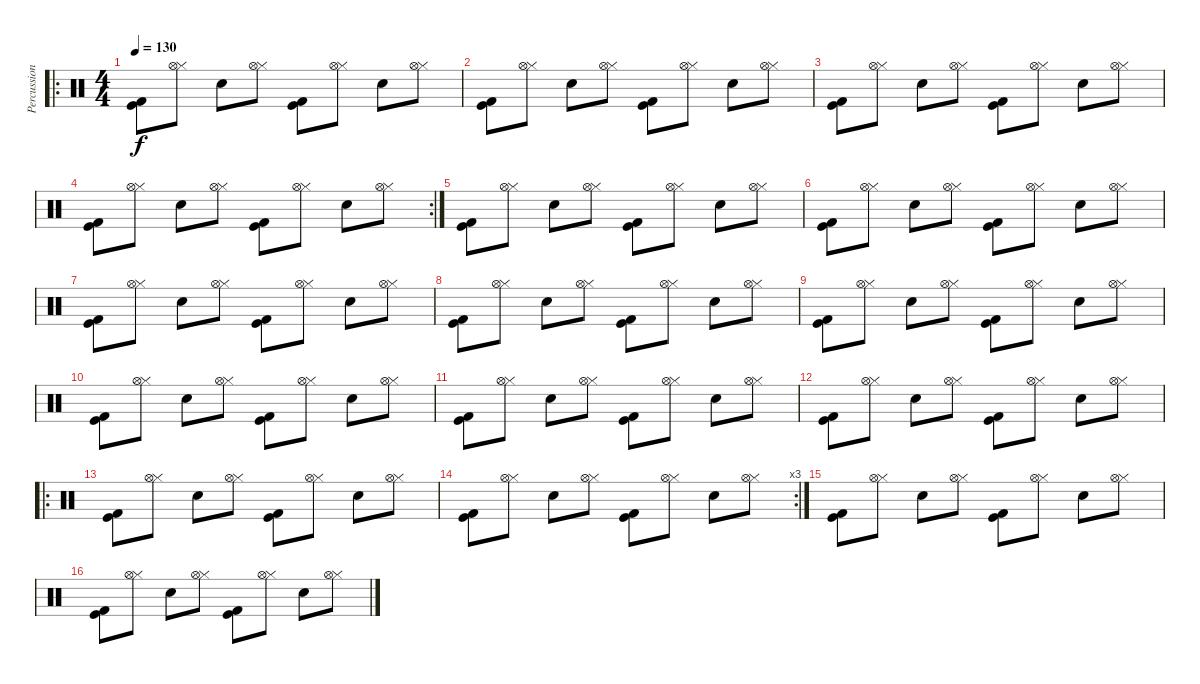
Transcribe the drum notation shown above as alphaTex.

\track ("Percussion" "Percussion") {instrument percussion}
\staff {score}
\articulation defaults
\ro
\ts (4 4)
\tempo 130
\clef neutral
\ks c
("Kick (hit)" "Kick (hit) 2").8{dy f} ("Hi-Hat (closed)" "Hi-Hat (open)").8 "Electric Snare (hit)".8 ("Hi-Hat (closed)" "Hi-Hat (open)").8 ("Kick (hit)" "Kick (hit) 2").8 ("Hi-Hat (closed)" "Hi-Hat (open)").8 "Electric Snare (hit)".8 ("Hi-Hat (closed)" "Hi-Hat (open)").8 |
("Kick (hit)" "Kick (hit) 2").8 ("Hi-Hat (closed)" "Hi-Hat (open)").8 "Electric Snare (hit)".8 ("Hi-Hat (closed)" "Hi-Hat (open)").8 ("Kick (hit)" "Kick (hit) 2").8 ("Hi-Hat (closed)" "Hi-Hat (open)").8 "Electric Snare (hit)".8 ("Hi-Hat (closed)" "Hi-Hat (open)").8 |
("Kick (hit)" "Kick (hit) 2").8 ("Hi-Hat (closed)" "Hi-Hat (open)").8 "Electric Snare (hit)".8 ("Hi-Hat (closed)" "Hi-Hat (open)").8 ("Kick (hit)" "Kick (hit) 2").8 ("Hi-Hat (closed)" "Hi-Hat (open)").8 "Electric Snare (hit)".8 ("Hi-Hat (closed)" "Hi-Hat (open)").8 |
\rc 2
("Kick (hit)" "Kick (hit) 2").8 ("Hi-Hat (closed)" "Hi-Hat (open)").8 "Electric Snare (hit)".8 ("Hi-Hat (closed)" "Hi-Hat (open)").8 ("Kick (hit)" "Kick (hit) 2").8 ("Hi-Hat (closed)" "Hi-Hat (open)").8 "Electric Snare (hit)".8 ("Hi-Hat (closed)" "Hi-Hat (open)").8 |
("Kick (hit)" "Kick (hit) 2").8 ("Hi-Hat (closed)" "Hi-Hat (open)").8 "Electric Snare (hit)".8 ("Hi-Hat (closed)" "Hi-Hat (open)").8 ("Kick (hit)" "Kick (hit) 2").8 ("Hi-Hat (closed)" "Hi-Hat (open)").8 "Electric Snare (hit)".8 ("Hi-Hat (closed)" "Hi-Hat (open)").8 |
("Kick (hit)" "Kick (hit) 2").8 ("Hi-Hat (closed)" "Hi-Hat (open)").8 "Electric Snare (hit)".8 ("Hi-Hat (closed)" "Hi-Hat (open)").8 ("Kick (hit)" "Kick (hit) 2").8 ("Hi-Hat (closed)" "Hi-Hat (open)").8 "Electric Snare (hit)".8 ("Hi-Hat (closed)" "Hi-Hat (open)").8 |
("Kick (hit)" "Kick (hit) 2").8 ("Hi-Hat (closed)" "Hi-Hat (open)").8 "Electric Snare (hit)".8 ("Hi-Hat (closed)" "Hi-Hat (open)").8 ("Kick (hit)" "Kick (hit) 2").8 ("Hi-Hat (closed)" "Hi-Hat (open)").8 "Electric Snare (hit)".8 ("Hi-Hat (closed)" "Hi-Hat (open)").8 |
("Kick (hit)" "Kick (hit) 2").8 ("Hi-Hat (closed)" "Hi-Hat (open)").8 "Electric Snare (hit)".8 ("Hi-Hat (closed)" "Hi-Hat (open)").8 ("Kick (hit)" "Kick (hit) 2").8 ("Hi-Hat (closed)" "Hi-Hat (open)").8 "Electric Snare (hit)".8 ("Hi-Hat (closed)" "Hi-Hat (open)").8 |
("Kick (hit)" "Kick (hit) 2").8 ("Hi-Hat (closed)" "Hi-Hat (open)").8 "Electric Snare (hit)".8 ("Hi-Hat (closed)" "Hi-Hat (open)").8 ("Kick (hit)" "Kick (hit) 2").8 ("Hi-Hat (closed)" "Hi-Hat (open)").8 "Electric Snare (hit)".8 ("Hi-Hat (closed)" "Hi-Hat (open)").8 |
("Kick (hit)" "Kick (hit) 2").8 ("Hi-Hat (closed)" "Hi-Hat (open)").8 "Electric Snare (hit)".8 ("Hi-Hat (closed)" "Hi-Hat (open)").8 ("Kick (hit)" "Kick (hit) 2").8 ("Hi-Hat (closed)" "Hi-Hat (open)").8 "Electric Snare (hit)".8 ("Hi-Hat (closed)" "Hi-Hat (open)").8 |
("Kick (hit)" "Kick (hit) 2").8 ("Hi-Hat (closed)" "Hi-Hat (open)").8 "Electric Snare (hit)".8 ("Hi-Hat (closed)" "Hi-Hat (open)").8 ("Kick (hit)" "Kick (hit) 2").8 ("Hi-Hat (closed)" "Hi-Hat (open)").8 "Electric Snare (hit)".8 ("Hi-Hat (closed)" "Hi-Hat (open)").8 |
("Kick (hit)" "Kick (hit) 2").8 ("Hi-Hat (closed)" "Hi-Hat (open)").8 "Electric Snare (hit)".8 ("Hi-Hat (closed)" "Hi-Hat (open)").8 ("Kick (hit)" "Kick (hit) 2").8 ("Hi-Hat (closed)" "Hi-Hat (open)").8 "Electric Snare (hit)".8 ("Hi-Hat (closed)" "Hi-Hat (open)").8 |
\ro
("Kick (hit)" "Kick (hit) 2").8 ("Hi-Hat (closed)" "Hi-Hat (open)").8 "Electric Snare (hit)".8 ("Hi-Hat (closed)" "Hi-Hat (open)").8 ("Kick (hit)" "Kick (hit) 2").8 ("Hi-Hat (closed)" "Hi-Hat (open)").8 "Electric Snare (hit)".8 ("Hi-Hat (closed)" "Hi-Hat (open)").8 |
\rc 3
("Kick (hit)" "Kick (hit) 2").8 ("Hi-Hat (closed)" "Hi-Hat (open)").8 "Electric Snare (hit)".8 ("Hi-Hat (closed)" "Hi-Hat (open)").8 ("Kick (hit)" "Kick (hit) 2").8 ("Hi-Hat (closed)" "Hi-Hat (open)").8 "Electric Snare (hit)".8 ("Hi-Hat (closed)" "Hi-Hat (open)").8 |
("Kick (hit)" "Kick (hit) 2").8 ("Hi-Hat (closed)" "Hi-Hat (open)").8 "Electric Snare (hit)".8 ("Hi-Hat (closed)" "Hi-Hat (open)").8 ("Kick (hit)" "Kick (hit) 2").8 ("Hi-Hat (closed)" "Hi-Hat (open)").8 "Electric Snare (hit)".8 ("Hi-Hat (closed)" "Hi-Hat (open)").8 |
("Kick (hit)" "Kick (hit) 2").8 ("Hi-Hat (closed)" "Hi-Hat (open)").8 "Electric Snare (hit)".8 ("Hi-Hat (closed)" "Hi-Hat (open)").8 ("Kick (hit)" "Kick (hit) 2").8 ("Hi-Hat (closed)" "Hi-Hat (open)").8 "Electric Snare (hit)".8 ("Hi-Hat (closed)" "Hi-Hat (open)").8
